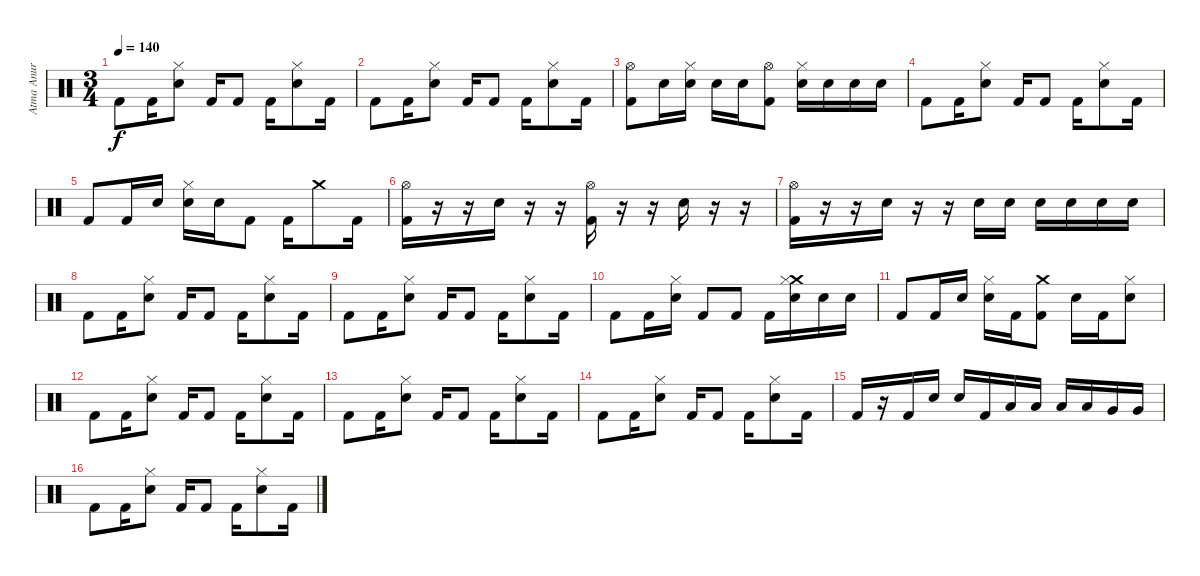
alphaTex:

\track ("Atma Anur" "Atma Anur") {instrument percussion}
\staff {score}
\articulation defaults
\ts (3 4)
\tempo 140
\clef neutral
\ks c "Kick (hit) 2".8{dy f} "Kick (hit) 2".16
("Hi-Hat (closed)" "Snare (hit) 2").8 "Kick (hit) 2".16 "Kick (hit) 2".8 "Kick (hit) 2".16 ("Hi-Hat (closed)" "Snare (hit) 2").8 "Kick (hit) 2".16 |
"Kick (hit) 2".8 "Kick (hit) 2".16 ("Hi-Hat (closed)" "Snare (hit) 2").8 "Kick (hit) 2".16 "Kick (hit) 2".8 "Kick (hit) 2".16 ("Hi-Hat (closed)" "Snare (hit) 2").8 "Kick (hit) 2".16 |
("Hi-Hat (open)" "Kick (hit) 2").8 "Snare (hit) 2".16 ("Hi-Hat (closed)" "Snare (hit) 2").16 "Snare (hit) 2".16 "Snare (hit) 2".16 ("Hi-Hat (open)" "Kick (hit) 2").8 ("Hi-Hat (closed)" "Snare (hit) 2").16 "Snare (hit) 2".16 "Snare (hit) 2".16 "Snare (hit) 2".16 |
"Kick (hit) 2".8 "Kick (hit) 2".16 ("Hi-Hat (closed)" "Snare (hit) 2").8 "Kick (hit) 2".16 "Kick (hit) 2".8 "Kick (hit) 2".16 ("Hi-Hat (closed)" "Snare (hit) 2").8 "Kick (hit) 2".16 |
"Kick (hit) 2".8 "Kick (hit) 2".16 "Snare (hit) 2".16 ("Hi-Hat (closed)" "Snare (hit) 2").16 "Snare (hit) 2".16 "Kick (hit) 2".8 "Kick (hit) 2".16 "Crash medium (hit)".8 "Kick (hit) 2".16 |
("Hi-Hat (open)" "Kick (hit) 2").16 r.16 r.16 "Snare (hit) 2".16 r.16 r.16 ("Hi-Hat (open)" "Kick (hit) 2").16 r.16 r.16 "Snare (hit) 2".16 r.16 r.16 |
("Hi-Hat (open)" "Kick (hit) 2").16 r.16 r.16 "Snare (hit) 2".16 r.16 r.16 "Snare (hit) 2".16 "Snare (hit) 2".16 "Snare (hit) 2".16 "Snare (hit) 2".16 "Snare (hit) 2".16 "Snare (hit) 2".16 |
"Kick (hit) 2".8 "Kick (hit) 2".16 ("Hi-Hat (closed)" "Snare (hit) 2").8 "Kick (hit) 2".16 "Kick (hit) 2".8 "Kick (hit) 2".16 ("Hi-Hat (closed)" "Snare (hit) 2").8 "Kick (hit) 2".16 |
"Kick (hit) 2".8 "Kick (hit) 2".16 ("Hi-Hat (closed)" "Snare (hit) 2").8 "Kick (hit) 2".16 "Kick (hit) 2".8 "Kick (hit) 2".16 ("Hi-Hat (closed)" "Snare (hit) 2").8 "Kick (hit) 2".16 |
"Kick (hit) 2".8 "Kick (hit) 2".16 ("Hi-Hat (closed)" "Snare (hit) 2").16 "Kick (hit) 2".8 "Kick (hit) 2".8 "Kick (hit) 2".16 ("Crash medium (hit)" "Hi-Hat (closed)" "Snare (hit) 2").16 "Snare (hit) 2".16 "Snare (hit) 2".16 |
"Kick (hit) 2".8 "Kick (hit) 2".16 "Snare (hit) 2".16 ("Hi-Hat (closed)" "Snare (hit) 2").16 "Kick (hit) 2".16 ("Crash medium (hit)" "Kick (hit) 2").8 "Snare (hit) 2".16 "Kick (hit) 2".16 ("Hi-Hat (closed)" "Snare (hit) 2").8 |
"Kick (hit) 2".8 "Kick (hit) 2".16 ("Hi-Hat (closed)" "Snare (hit) 2").8 "Kick (hit) 2".16 "Kick (hit) 2".8 "Kick (hit) 2".16 ("Hi-Hat (closed)" "Snare (hit) 2").8 "Kick (hit) 2".16 |
"Kick (hit) 2".8 "Kick (hit) 2".16 ("Hi-Hat (closed)" "Snare (hit) 2").8 "Kick (hit) 2".16 "Kick (hit) 2".8 "Kick (hit) 2".16 ("Hi-Hat (closed)" "Snare (hit) 2").8 "Kick (hit) 2".16 |
"Kick (hit) 2".8 "Kick (hit) 2".16 ("Hi-Hat (closed)" "Snare (hit) 2").8 "Kick (hit) 2".16 "Kick (hit) 2".8 "Kick (hit) 2".16 ("Hi-Hat (closed)" "Snare (hit) 2").8 "Kick (hit) 2".16 |
"Kick (hit) 2".16 r.16 "Kick (hit) 2".16 "Snare (hit) 2".16 "Snare (hit) 2".16 "Kick (hit) 2".16 "Low Tom (hit)".16 "Low Tom (hit)".16 "Low Tom (hit)".16 "Low Tom (hit)".16 "Very Low Tom (hit)".16 "Very Low Tom (hit)".16 |
"Kick (hit) 2".8 "Kick (hit) 2".16 ("Hi-Hat (closed)" "Snare (hit) 2").8 "Kick (hit) 2".16 "Kick (hit) 2".8 "Kick (hit) 2".16 ("Hi-Hat (closed)" "Snare (hit) 2").8 "Kick (hit) 2".16
